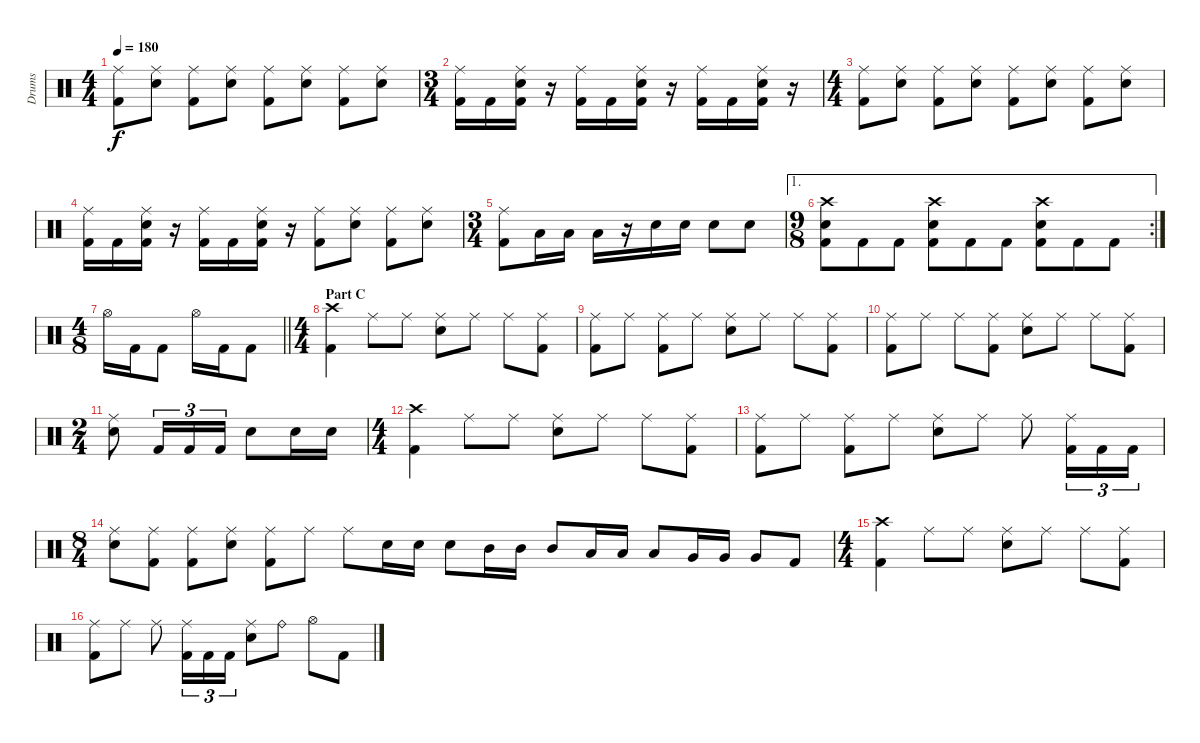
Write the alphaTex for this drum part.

\track ("Drums" "Drums") {instrument percussion}
\staff {score}
\articulation defaults
\ts (4 4)
\tempo 180
\clef neutral
\ks c
("Kick (hit) 2" "Ride (middle)").8{dy f} ("Snare (hit) 2" "Ride (middle)").8 ("Kick (hit) 2" "Ride (middle)").8 ("Snare (hit) 2" "Ride (middle)").8 ("Kick (hit) 2" "Ride (middle)").8 ("Snare (hit) 2" "Ride (middle)").8 ("Kick (hit) 2" "Ride (middle)").8 ("Snare (hit) 2" "Ride (middle)").8 |
\ts (3 4)
("Kick (hit) 2" "Ride (middle)").16 "Kick (hit) 2".16 ("Kick (hit) 2" "Snare (hit) 2" "Ride (middle)").16 r.16 ("Kick (hit) 2" "Ride (middle)").16 "Kick (hit) 2".16 ("Kick (hit) 2" "Snare (hit) 2" "Ride (middle)").16 r.16 ("Kick (hit) 2" "Ride (middle)").16 "Kick (hit) 2".16 ("Kick (hit) 2" "Snare (hit) 2" "Ride (middle)").16 r.16 |
\ts (4 4)
("Kick (hit) 2" "Ride (middle)").8 ("Snare (hit) 2" "Ride (middle)").8 ("Kick (hit) 2" "Ride (middle)").8 ("Snare (hit) 2" "Ride (middle)").8 ("Kick (hit) 2" "Ride (middle)").8 ("Snare (hit) 2" "Ride (middle)").8 ("Kick (hit) 2" "Ride (middle)").8 ("Snare (hit) 2" "Ride (middle)").8 |
("Kick (hit) 2" "Ride (middle)").16 "Kick (hit) 2".16 ("Kick (hit) 2" "Snare (hit) 2" "Ride (middle)").16 r.16 ("Kick (hit) 2" "Ride (middle)").16 "Kick (hit) 2".16 ("Kick (hit) 2" "Snare (hit) 2" "Ride (middle)").16 r.16 ("Kick (hit) 2" "Ride (middle)").8 ("Snare (hit) 2" "Ride (middle)").8 ("Kick (hit) 2" "Ride (middle)").8 ("Snare (hit) 2" "Ride (middle)").8 |
\ts (3 4)
("Kick (hit) 2" "Ride (middle)").8 "Low Tom (hit)".16 "Low Tom (hit)".16 "Low Tom (hit)".16 r.16 "Snare (hit) 2".16 "Snare (hit) 2".16 "Snare (hit) 2".8 "Snare (hit) 2".8 |
\ae 1
\rc 2
\ts (9 8)
("Kick (hit) 2" "Crash high (hit)" "Snare (hit) 2").8 "Kick (hit) 2".8 "Kick (hit) 2".8 ("Kick (hit) 2" "Crash high (hit)" "Snare (hit) 2").8 "Kick (hit) 2".8 "Kick (hit) 2".8 ("Kick (hit) 2" "Crash high (hit)" "Snare (hit) 2").8 "Kick (hit) 2".8 "Kick (hit) 2".8 |
\ts (4 8)
\barLineRight lightlight "Hi-Hat (open)".16 "Kick (hit) 2".16 "Kick (hit) 2".8 "Hi-Hat (open)".16 "Kick (hit) 2".16 "Kick (hit) 2".8
|
\ts (4 4)
\section ("" "Part C")
("Kick (hit) 2" "Crash high (hit)").4 "Ride (middle)".8 "Ride (middle)".8 ("Ride (middle)" "Snare (hit) 2").8 "Ride (middle)".8 "Ride (middle)".8 ("Ride (middle)" "Kick (hit) 2").8 |
("Kick (hit) 2" "Ride (middle)").8 "Ride (middle)".8 ("Ride (middle)" "Kick (hit) 2").8 "Ride (middle)".8 ("Ride (middle)" "Snare (hit) 2").8 "Ride (middle)".8 "Ride (middle)".8 ("Ride (middle)" "Kick (hit) 2").8 |
("Kick (hit) 2" "Ride (middle)").8 "Ride (middle)".8 "Ride (middle)".8 ("Ride (middle)" "Kick (hit) 2").8 ("Ride (middle)" "Snare (hit) 2").8 "Ride (middle)".8 "Ride (middle)".8 ("Ride (middle)" "Kick (hit) 2").8 |
\ts (2 4)
("Ride (middle)" "Snare (hit) 2").8 "Kick (hit) 2".16{tu (3 2)} "Kick (hit) 2".16{tu (3 2)} "Kick (hit) 2".16{tu (3 2)} "Snare (hit) 2".8 "Snare (hit) 2".16 "Snare (hit) 2".16 |
\ts (4 4)
("Kick (hit) 2" "Crash high (hit)").4 "Ride (middle)".8 "Ride (middle)".8 ("Ride (middle)" "Snare (hit) 2").8 "Ride (middle)".8 "Ride (middle)".8 ("Ride (middle)" "Kick (hit) 2").8 |
("Kick (hit) 2" "Ride (middle)").8 "Ride (middle)".8 ("Ride (middle)" "Kick (hit) 2").8 "Ride (middle)".8 ("Ride (middle)" "Snare (hit) 2").8 "Ride (middle)".8 "Ride (middle)".8 ("Ride (middle)" "Kick (hit) 2").16{tu (3 2)} "Kick (hit) 2".16{tu (3 2)} "Kick (hit) 2".16{tu (3 2)} |
\ts (8 4)
("Snare (hit) 2" "Ride (middle)").8 ("Ride (middle)" "Kick (hit) 2").8 ("Ride (middle)" "Kick (hit) 2").8 ("Ride (middle)" "Snare (hit) 2").8 ("Kick (hit) 2" "Ride (middle)").8 "Ride (middle)".8 "Ride (middle)".8 "Snare (hit) 2".16 "Snare (hit) 2".16 "Snare (hit) 2".8 "Mid Tom (hit)".16 "Mid Tom (hit)".16 "Mid Tom (hit)".8 "Low Tom (hit)".16 "Low Tom (hit)".16 "Low Tom (hit)".8 "Very Low Tom (hit)".16 "Very Low Tom (hit)".16 "Very Low Tom (hit)".8 "Kick (hit) 2".8 |
\ts (4 4)
("Kick (hit) 2" "Crash high (hit)").4 "Ride (middle)".8 "Ride (middle)".8 ("Ride (middle)" "Snare (hit) 2").8 "Ride (middle)".8 "Ride (middle)".8 ("Ride (middle)" "Kick (hit) 2").8 |
("Kick (hit) 2" "Ride (middle)").8 "Ride (middle)".8 "Ride (middle)".8 ("Ride (middle)" "Kick (hit) 2").16{tu (3 2)} "Kick (hit) 2".16{tu (3 2)} "Kick (hit) 2".16{tu (3 2)} ("Ride (middle)" "Snare (hit) 2").8 "Ride (bell)".8 "Hi-Hat (open)".8 "Kick (hit) 2".8
